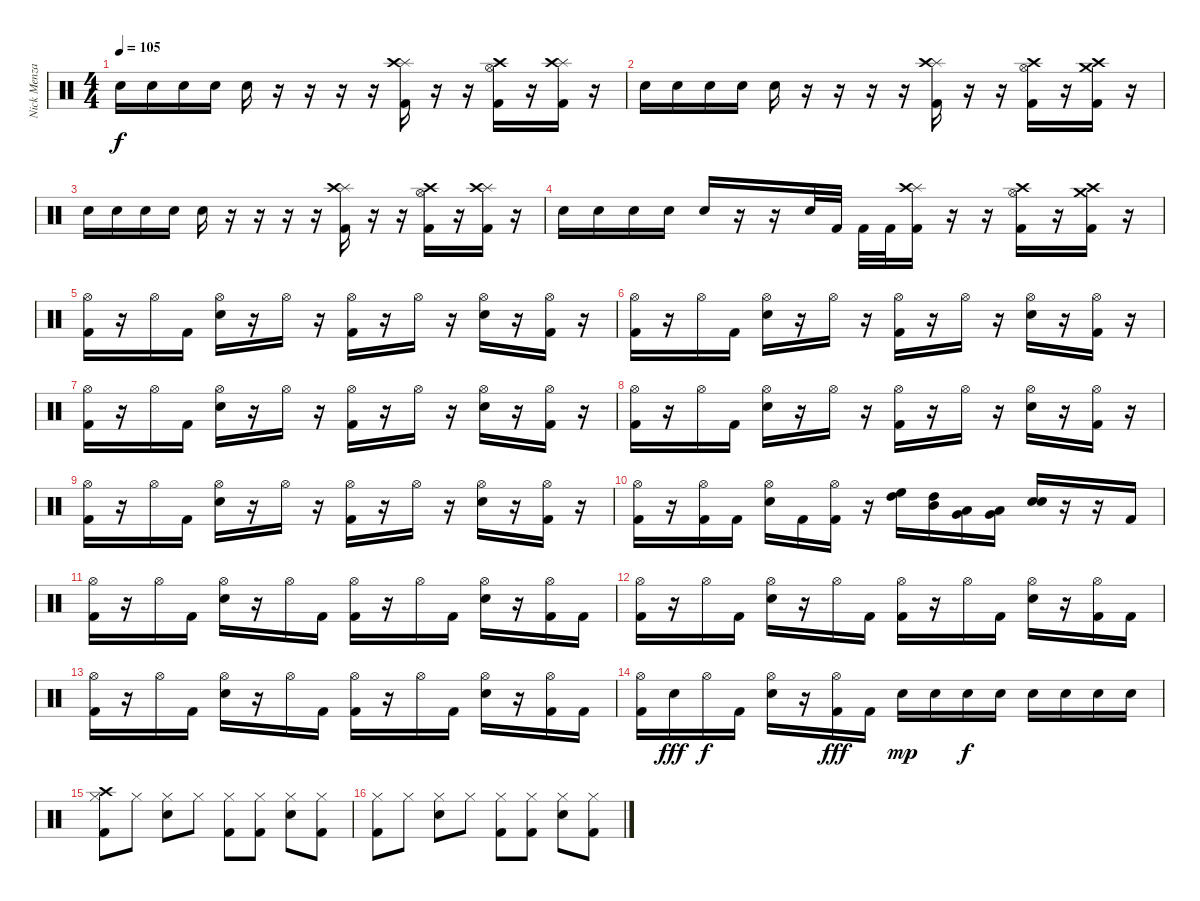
\track ("Nick Menza" "Nick Menza") {instrument percussion}
\staff {score}
\articulation defaults
\ts (4 4)
\tempo 105
\clef neutral
\ks c "Electric Snare (hit)".16{dy f} "Electric Snare (hit)".16 "Electric Snare (hit)".16 "Electric Snare (hit)".16 "Electric Snare (hit)".16
r.16 r.16 r.16 r.16 ("Splash (hit)" "Crash high (hit)" "Kick (hit) 2").16 r.16 r.16 ("Hi-Hat (open)" "Crash high (hit)" "Kick (hit) 2").16 r.16 ("Splash (hit)" "Crash high (hit)" "Kick (hit) 2").16 r.16 |
"Electric Snare (hit)".16 "Electric Snare (hit)".16 "Electric Snare (hit)".16 "Electric Snare (hit)".16 "Electric Snare (hit)".16 r.16 r.16 r.16 r.16 ("Splash (hit)" "Crash high (hit)" "Kick (hit) 2").16 r.16 r.16 ("Hi-Hat (open)" "Crash high (hit)" "Kick (hit) 2").16 r.16 ("Crash medium (hit)" "Crash high (hit)" "Kick (hit) 2").16 r.16 |
"Electric Snare (hit)".16 "Electric Snare (hit)".16 "Electric Snare (hit)".16 "Electric Snare (hit)".16 "Electric Snare (hit)".16 r.16 r.16 r.16 r.16 ("Splash (hit)" "Crash high (hit)" "Kick (hit) 2").16 r.16 r.16 ("Hi-Hat (open)" "Crash high (hit)" "Kick (hit) 2").16 r.16 ("Splash (hit)" "Crash high (hit)" "Kick (hit) 2").16 r.16 |
"Electric Snare (hit)".16 "Electric Snare (hit)".16 "Electric Snare (hit)".16 "Electric Snare (hit)".16 "Electric Snare (hit)".16 r.16 r.16 "Electric Snare (hit)".32 "Kick (hit) 2".32 "Kick (hit) 2".32 "Kick (hit) 2".32 ("Splash (hit)" "Crash high (hit)" "Kick (hit) 2").16 r.16 r.16 ("Hi-Hat (open)" "Crash high (hit)" "Kick (hit) 2").16 r.16 ("Crash medium (hit)" "Crash high (hit)" "Kick (hit) 2").16 r.16 |
("Hi-Hat (open)" "Kick (hit) 2").16 r.16 "Hi-Hat (open)".16 "Kick (hit) 2".16 ("Hi-Hat (open)" "Electric Snare (hit)").16 r.16 "Hi-Hat (open)".16 r.16 ("Hi-Hat (open)" "Kick (hit) 2").16 r.16 "Hi-Hat (open)".16 r.16 ("Hi-Hat (open)" "Electric Snare (hit)").16 r.16 ("Hi-Hat (open)" "Kick (hit) 2").16 r.16 |
("Hi-Hat (open)" "Kick (hit) 2").16 r.16 "Hi-Hat (open)".16 "Kick (hit) 2".16 ("Hi-Hat (open)" "Electric Snare (hit)").16 r.16 "Hi-Hat (open)".16 r.16 ("Hi-Hat (open)" "Kick (hit) 2").16 r.16 "Hi-Hat (open)".16 r.16 ("Hi-Hat (open)" "Electric Snare (hit)").16 r.16 ("Hi-Hat (open)" "Kick (hit) 2").16 r.16 |
("Hi-Hat (open)" "Kick (hit) 2").16 r.16 "Hi-Hat (open)".16 "Kick (hit) 2".16 ("Hi-Hat (open)" "Electric Snare (hit)").16 r.16 "Hi-Hat (open)".16 r.16 ("Hi-Hat (open)" "Kick (hit) 2").16 r.16 "Hi-Hat (open)".16 r.16 ("Hi-Hat (open)" "Electric Snare (hit)").16 r.16 ("Hi-Hat (open)" "Kick (hit) 2").16 r.16 |
("Hi-Hat (open)" "Kick (hit) 2").16 r.16 "Hi-Hat (open)".16 "Kick (hit) 2".16 ("Hi-Hat (open)" "Electric Snare (hit)").16 r.16 "Hi-Hat (open)".16 r.16 ("Hi-Hat (open)" "Kick (hit) 2").16 r.16 "Hi-Hat (open)".16 r.16 ("Hi-Hat (open)" "Electric Snare (hit)").16 r.16 ("Hi-Hat (open)" "Kick (hit) 2").16 r.16 |
("Hi-Hat (open)" "Kick (hit) 2").16 r.16 "Hi-Hat (open)".16 "Kick (hit) 2".16 ("Hi-Hat (open)" "Electric Snare (hit)").16 r.16 "Hi-Hat (open)".16 r.16 ("Hi-Hat (open)" "Kick (hit) 2").16 r.16 "Hi-Hat (open)".16 r.16 ("Hi-Hat (open)" "Electric Snare (hit)").16 r.16 ("Hi-Hat (open)" "Kick (hit) 2").16 r.16 |
("Hi-Hat (open)" "Kick (hit) 2").16 r.16 ("Hi-Hat (open)" "Kick (hit) 2").16 "Kick (hit) 2".16 ("Hi-Hat (open)" "Electric Snare (hit)").16 "Kick (hit) 2".16 ("Hi-Hat (open)" "Kick (hit) 2").16 r.16 ("High Floor Tom (hit)" "High Tom (hit)").16 ("High Tom (hit)" "Mid Tom (hit)").16 ("Low Tom (hit)" "Very Low Tom (hit)").16 ("Low Tom (hit)" "Very Low Tom (hit)").16 ("Electric Snare (hit)" "Electric Snare (hit)").16 r.16 r.16 "Kick (hit) 2".16 |
("Hi-Hat (open)" "Kick (hit) 2").16 r.16 "Hi-Hat (open)".16 "Kick (hit) 2".16 ("Hi-Hat (open)" "Electric Snare (hit)").16 r.16 "Hi-Hat (open)".16 "Kick (hit) 2".16 ("Hi-Hat (open)" "Kick (hit) 2").16 r.16 "Hi-Hat (open)".16 "Kick (hit) 2".16 ("Hi-Hat (open)" "Electric Snare (hit)").16 r.16 ("Hi-Hat (open)" "Kick (hit) 2").16 "Kick (hit) 2".16 |
("Hi-Hat (open)" "Kick (hit) 2").16 r.16 "Hi-Hat (open)".16 "Kick (hit) 2".16 ("Hi-Hat (open)" "Electric Snare (hit)").16 r.16 "Hi-Hat (open)".16 "Kick (hit) 2".16 ("Hi-Hat (open)" "Kick (hit) 2").16 r.16 "Hi-Hat (open)".16 "Kick (hit) 2".16 ("Hi-Hat (open)" "Electric Snare (hit)").16 r.16 ("Hi-Hat (open)" "Kick (hit) 2").16 "Kick (hit) 2".16 |
("Hi-Hat (open)" "Kick (hit) 2").16 r.16 "Hi-Hat (open)".16 "Kick (hit) 2".16 ("Hi-Hat (open)" "Electric Snare (hit)").16 r.16 "Hi-Hat (open)".16 "Kick (hit) 2".16 ("Hi-Hat (open)" "Kick (hit) 2").16 r.16 "Hi-Hat (open)".16 "Kick (hit) 2".16 ("Hi-Hat (open)" "Electric Snare (hit)").16 r.16 ("Hi-Hat (open)" "Kick (hit) 2").16 "Kick (hit) 2".16 |
("Hi-Hat (open)" "Kick (hit) 2").16 "Electric Snare (hit)".16{dy fff} "Hi-Hat (open)".16{dy f} "Kick (hit) 2".16 ("Hi-Hat (open)" "Electric Snare (hit)").16 r.16 ("Hi-Hat (open)" "Kick (hit) 2").16{dy fff} "Kick (hit) 2".16 "Electric Snare (hit)".16{dy mp} "Electric Snare (hit)".16 "Electric Snare (hit)".16{dy f} "Electric Snare (hit)".16 "Electric Snare (hit)".16 "Electric Snare (hit)".16 "Electric Snare (hit)".16 "Electric Snare (hit)".16 |
("Crash high (hit)" "Hi-Hat (closed)" "Kick (hit) 2").8 "Hi-Hat (closed)".8 ("Hi-Hat (closed)" "Electric Snare (hit)").8 "Hi-Hat (closed)".8 ("Hi-Hat (closed)" "Kick (hit) 2").8 ("Hi-Hat (closed)" "Kick (hit) 2").8 ("Hi-Hat (closed)" "Electric Snare (hit)").8 ("Hi-Hat (closed)" "Kick (hit) 2").8 |
("Hi-Hat (closed)" "Kick (hit) 2").8 "Hi-Hat (closed)".8 ("Hi-Hat (closed)" "Electric Snare (hit)").8 "Hi-Hat (closed)".8 ("Hi-Hat (closed)" "Kick (hit) 2").8 ("Hi-Hat (closed)" "Kick (hit) 2").8 ("Hi-Hat (closed)" "Electric Snare (hit)").8 ("Hi-Hat (closed)" "Kick (hit) 2").8
